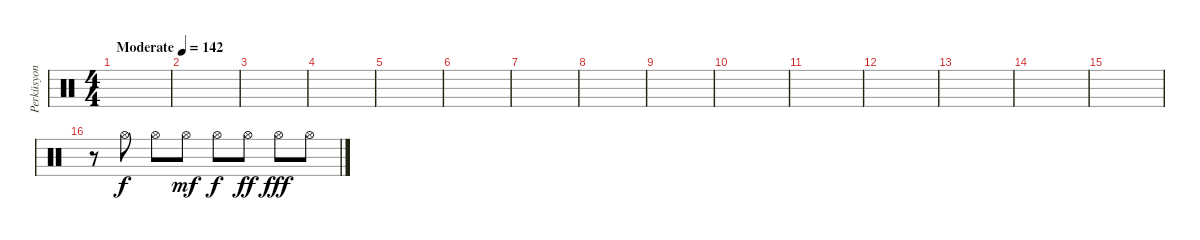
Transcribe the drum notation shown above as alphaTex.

\track ("Perküsyon" "Perküsyon") {instrument percussion}
\staff {score}
\articulation defaults
\ts (4 4)
\tempo (142 "Moderate")
\clef neutral
\ks c
|
|
|
|
|
|
|
|
|
|
|
|
|
|
|
r.8 "Hi-Hat (open)".8 "Hi-Hat (open)".8 "Hi-Hat (open)".8{dy mf} "Hi-Hat (open)".8{dy f} "Hi-Hat (open)".8{dy ff} "Hi-Hat (open)".8{dy fff} "Hi-Hat (open)".8
